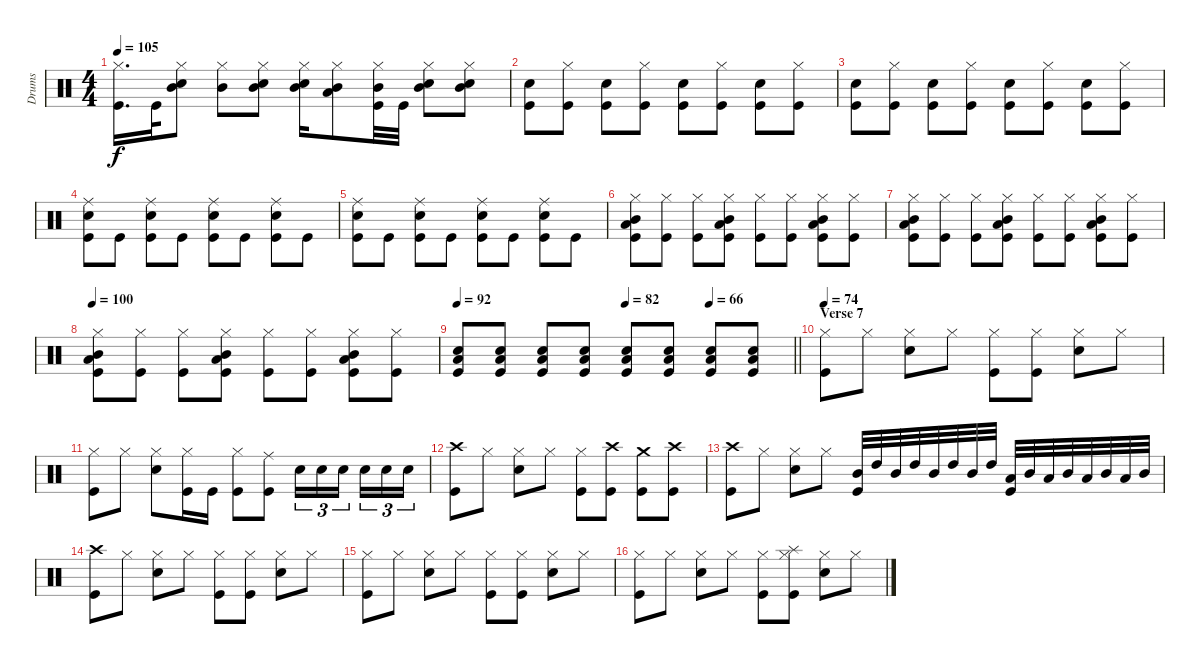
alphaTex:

\track ("Drums" "Drums") {instrument percussion}
\staff {score}
\articulation defaults
\ts (4 4)
\tempo 105
\clef neutral
\ks c
("Hi-Hat (closed)" "Kick (hit)").16{d dy f} "Kick (hit)".32 ("Snare (hit) 2" "Hi-Hat (closed)" "Mid Tom (hit)").8 ("Hi-Hat (closed)" "Mid Tom (hit)").8 ("Snare (hit) 2" "Hi-Hat (closed)" "Mid Tom (hit)").8 ("Snare (hit) 2" "Hi-Hat (closed)" "Mid Tom (hit)").16 ("Hi-Hat (closed)" "Low Tom (hit)" "Mid Tom (hit)").8 ("Kick (hit)" "Mid Tom (hit)" "Hi-Hat (closed)").32 "Kick (hit)".32 ("Snare (hit) 2" "Hi-Hat (closed)" "Mid Tom (hit)").8 ("Snare (hit) 2" "Hi-Hat (closed)" "Mid Tom (hit)").8 |
("Kick (hit)" "Snare (hit) 2").8 ("Kick (hit)" "Hi-Hat (closed)").8 ("Kick (hit)" "Snare (hit) 2").8 ("Kick (hit)" "Hi-Hat (closed)").8 ("Kick (hit)" "Snare (hit) 2").8 ("Kick (hit)" "Hi-Hat (closed)").8 ("Kick (hit)" "Snare (hit) 2").8 ("Kick (hit)" "Hi-Hat (closed)").8 |
("Kick (hit)" "Snare (hit) 2").8 ("Kick (hit)" "Hi-Hat (closed)").8 ("Kick (hit)" "Snare (hit) 2").8 ("Kick (hit)" "Hi-Hat (closed)").8 ("Kick (hit)" "Snare (hit) 2").8 ("Kick (hit)" "Hi-Hat (closed)").8 ("Kick (hit)" "Snare (hit) 2").8 ("Kick (hit)" "Hi-Hat (closed)").8 |
("Ride (middle)" "Kick (hit)" "Snare (hit) 2").8 "Kick (hit)".8 ("Kick (hit)" "Ride (middle)" "Snare (hit) 2").8 "Kick (hit)".8 ("Ride (middle)" "Kick (hit)" "Snare (hit) 2").8 "Kick (hit)".8 ("Ride (middle)" "Kick (hit)" "Snare (hit) 2").8 "Kick (hit)".8 |
("Ride (middle)" "Kick (hit)" "Snare (hit) 2").8 "Kick (hit)".8 ("Kick (hit)" "Ride (middle)" "Snare (hit) 2").8 "Kick (hit)".8 ("Ride (middle)" "Kick (hit)" "Snare (hit) 2").8 "Kick (hit)".8 ("Ride (middle)" "Kick (hit)" "Snare (hit) 2").8 "Kick (hit)".8 |
("Kick (hit)" "Mid Tom (hit)" "Hi-Hat (closed)" "Low Tom (hit)").8 ("Kick (hit)" "Hi-Hat (closed)").8 ("Kick (hit)" "Hi-Hat (closed)").8 ("Kick (hit)" "Low Tom (hit)" "Mid Tom (hit)" "Hi-Hat (closed)").8 ("Kick (hit)" "Hi-Hat (closed)").8 ("Kick (hit)" "Hi-Hat (closed)").8 ("Kick (hit)" "Low Tom (hit)" "Hi-Hat (closed)" "Mid Tom (hit)").8 ("Kick (hit)" "Hi-Hat (closed)").8 |
("Kick (hit)" "Mid Tom (hit)" "Hi-Hat (closed)" "Low Tom (hit)").8 ("Kick (hit)" "Hi-Hat (closed)").8 ("Kick (hit)" "Hi-Hat (closed)").8 ("Kick (hit)" "Low Tom (hit)" "Mid Tom (hit)" "Hi-Hat (closed)").8 ("Kick (hit)" "Hi-Hat (closed)").8 ("Kick (hit)" "Hi-Hat (closed)").8 ("Kick (hit)" "Low Tom (hit)" "Hi-Hat (closed)" "Mid Tom (hit)").8 ("Kick (hit)" "Hi-Hat (closed)").8 |
\tempo 100
("Kick (hit)" "Mid Tom (hit)" "Hi-Hat (closed)" "Low Tom (hit)").8 ("Kick (hit)" "Hi-Hat (closed)").8 ("Kick (hit)" "Hi-Hat (closed)").8 ("Kick (hit)" "Low Tom (hit)" "Mid Tom (hit)" "Hi-Hat (closed)").8 ("Kick (hit)" "Hi-Hat (closed)").8 ("Kick (hit)" "Hi-Hat (closed)").8 ("Kick (hit)" "Low Tom (hit)" "Hi-Hat (closed)" "Mid Tom (hit)").8 ("Kick (hit)" "Hi-Hat (closed)").8 |
\tempo 92
\tempo (82 0.5)
\tempo (66 0.75)
\barLineRight lightlight
("Snare (hit) 2" "Kick (hit)" "Low Tom (hit)").8 ("Snare (hit) 2" "Kick (hit)" "Low Tom (hit)").8 ("Snare (hit) 2" "Kick (hit)" "Low Tom (hit)").8 ("Low Tom (hit)" "Kick (hit)" "Snare (hit) 2").8 ("Snare (hit) 2" "Kick (hit)" "Low Tom (hit)").8 ("Snare (hit) 2" "Kick (hit)" "Low Tom (hit)").8 ("Low Tom (hit)" "Kick (hit)" "Snare (hit) 2").8 ("Kick (hit)" "Snare (hit) 2" "Low Tom (hit)").8 |
\section ("" "Verse 7")
\tempo 74
("Kick (hit)" "Hi-Hat (closed)").8 "Hi-Hat (closed)".8 ("Snare (hit) 2" "Hi-Hat (closed)").8 "Hi-Hat (closed)".8 ("Kick (hit)" "Hi-Hat (closed)").8 ("Kick (hit)" "Hi-Hat (closed)").8 ("Snare (hit) 2" "Hi-Hat (closed)").8 "Hi-Hat (closed)".8 |
("Hi-Hat (closed)" "Kick (hit)").8 "Hi-Hat (closed)".8 ("Hi-Hat (closed)" "Snare (hit) 2").8 ("Kick (hit)" "Hi-Hat (closed)").16 "Kick (hit)".16 ("Hi-Hat (closed)" "Kick (hit)").8 ("Kick (hit)" "Ride (middle)").8 "Snare (hit) 2".16{tu (3 2)} "Snare (hit) 2".16{tu (3 2)} "Snare (hit) 2".16{tu (3 2) beam splitsecondary} "Snare (hit) 2".16{tu (3 2)} "Snare (hit) 2".16{tu (3 2)} "Snare (hit) 2".16{tu (3 2)} |
("Crash high (hit)" "Kick (hit)").8 "Hi-Hat (closed)".8 ("Snare (hit) 2" "Hi-Hat (closed)").8 "Hi-Hat (closed)".8 ("Hi-Hat (closed)" "Kick (hit)").8 ("Crash high (hit)" "Kick (hit)").8 ("Crash medium (hit)" "Kick (hit)").8 ("Crash high (hit)" "Kick (hit)").8 |
("Crash high (hit)" "Kick (hit)").8 "Hi-Hat (closed)".8 ("Snare (hit) 2" "Hi-Hat (closed)").8 "Hi-Hat (closed)".8 ("Mid Tom (hit)" "Kick (hit)").32 "High Tom (hit)".32 "Mid Tom (hit)".32 "High Tom (hit)".32 "Mid Tom (hit)".32 "High Tom (hit)".32 "Mid Tom (hit)".32 "High Tom (hit)".32 ("Low Tom (hit)" "Kick (hit)").32 "Mid Tom (hit)".32 "Low Tom (hit)".32 "Mid Tom (hit)".32 "Low Tom (hit)".32 "Mid Tom (hit)".32 "Low Tom (hit)".32 "Mid Tom (hit)".32 |
("Kick (hit)" "Crash high (hit)").8 "Hi-Hat (closed)".8 ("Snare (hit) 2" "Hi-Hat (closed)").8 "Hi-Hat (closed)".8 ("Kick (hit)" "Hi-Hat (closed)").8 ("Kick (hit)" "Hi-Hat (closed)").8 ("Snare (hit) 2" "Hi-Hat (closed)").8 "Hi-Hat (closed)".8 |
("Kick (hit)" "Hi-Hat (closed)").8 "Hi-Hat (closed)".8 ("Snare (hit) 2" "Hi-Hat (closed)").8 "Hi-Hat (closed)".8 ("Kick (hit)" "Hi-Hat (closed)").8 ("Kick (hit)" "Hi-Hat (closed)").8 ("Snare (hit) 2" "Hi-Hat (closed)").8 "Hi-Hat (closed)".8 |
("Kick (hit)" "Hi-Hat (closed)").8 "Hi-Hat (closed)".8 ("Snare (hit) 2" "Hi-Hat (closed)").8 "Hi-Hat (closed)".8 ("Kick (hit)" "Hi-Hat (closed)").8 ("Kick (hit)" "Hi-Hat (closed)" "Splash (hit)").8 ("Snare (hit) 2" "Hi-Hat (closed)").8 "Hi-Hat (closed)".8
